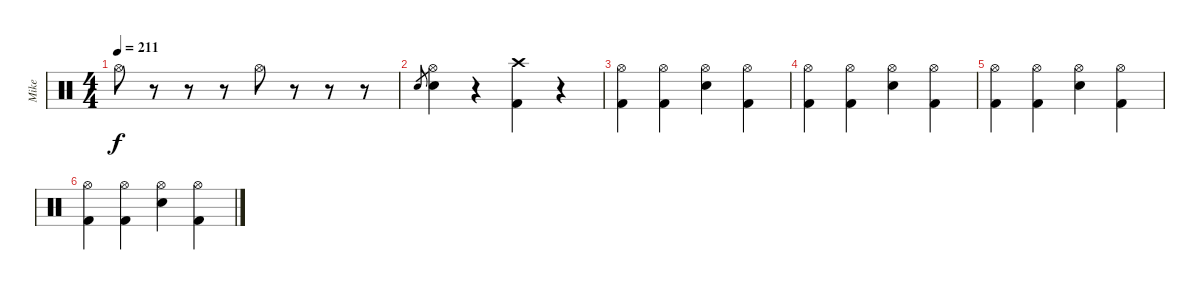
\track ("Mike" "Mike") {instrument percussion}
\staff {score}
\articulation defaults
\ts (4 4)
\tempo 211
\clef neutral
\ks c "Hi-Hat (open)".8{dy f}
r.8 r.8 r.8 "Hi-Hat (open)".8 r.8 r.8 r.8 |
"Electric Snare (hit)".8{gr} ("Hi-Hat (open)" "Electric Snare (hit)").4 r.4 ("Crash high (hit)" "Kick (hit) 2").4 r.4 |
("Hi-Hat (open)" "Kick (hit) 2").4 ("Hi-Hat (open)" "Kick (hit) 2").4 ("Hi-Hat (open)" "Electric Snare (hit)").4 ("Hi-Hat (open)" "Kick (hit) 2").4 |
("Hi-Hat (open)" "Kick (hit) 2").4 ("Hi-Hat (open)" "Kick (hit) 2").4 ("Hi-Hat (open)" "Electric Snare (hit)").4 ("Hi-Hat (open)" "Kick (hit) 2").4 |
("Hi-Hat (open)" "Kick (hit) 2").4 ("Hi-Hat (open)" "Kick (hit) 2").4 ("Hi-Hat (open)" "Electric Snare (hit)").4 ("Hi-Hat (open)" "Kick (hit) 2").4 |
("Hi-Hat (open)" "Kick (hit) 2").4 ("Hi-Hat (open)" "Kick (hit) 2").4 ("Hi-Hat (open)" "Electric Snare (hit)").4 ("Hi-Hat (open)" "Kick (hit) 2").4
